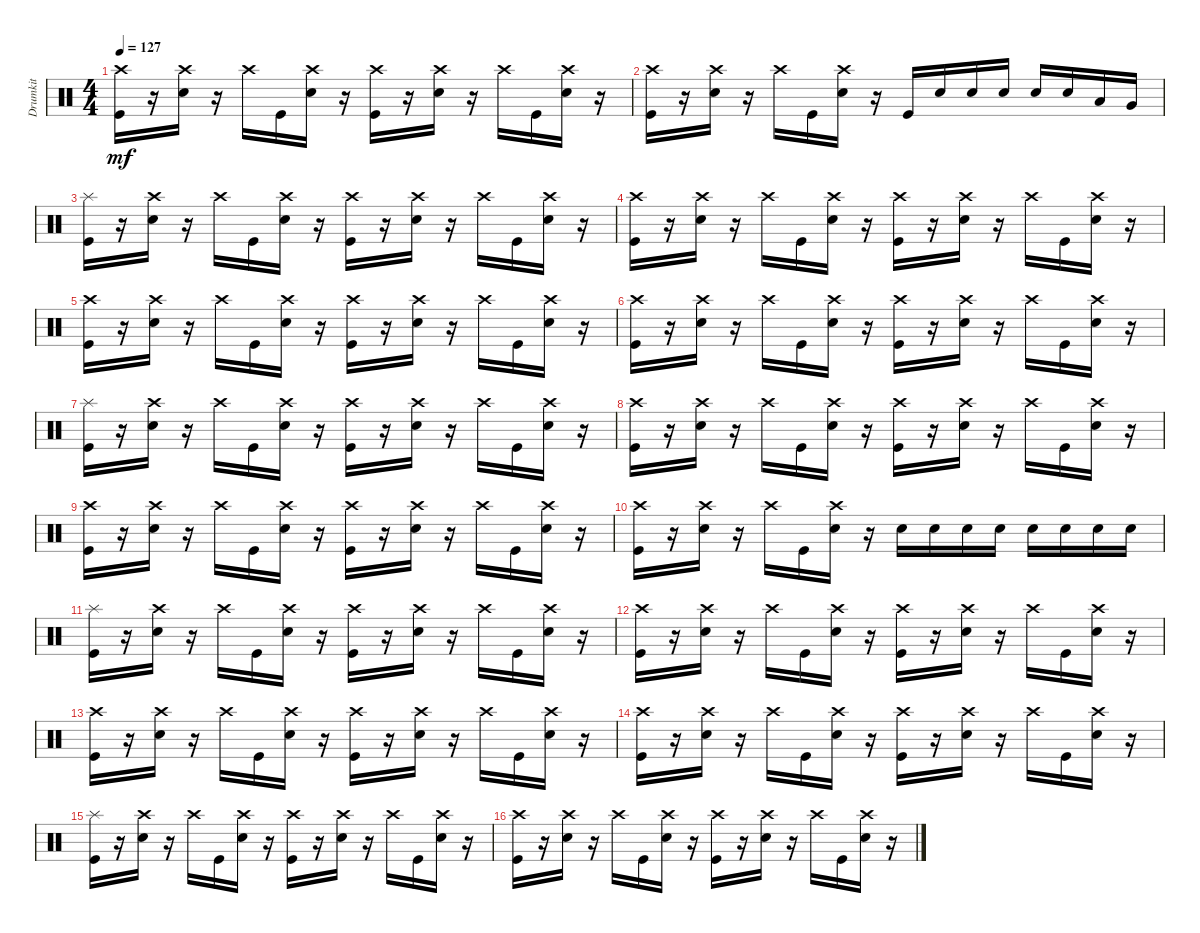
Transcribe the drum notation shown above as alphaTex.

\track ("Drumkit" "Drumkit") {instrument percussion}
\staff {score}
\articulation defaults
\ts (4 4)
\tempo 127
\clef neutral
\ks c
("Kick (hit)" "Crash high (hit)").16{dy mf} r.16 ("Snare (hit) 2" "Crash high (hit)").16 r.16 "Crash high (hit)".16 "Kick (hit)".16 ("Snare (hit) 2" "Crash high (hit)").16 r.16 ("Kick (hit)" "Crash high (hit)").16 r.16 ("Snare (hit) 2" "Crash high (hit)").16 r.16 "Crash high (hit)".16 "Kick (hit)".16 ("Snare (hit) 2" "Crash high (hit)").16 r.16 |
("Kick (hit)" "Crash high (hit)").16 r.16 ("Snare (hit) 2" "Crash high (hit)").16 r.16 "Crash high (hit)".16 "Kick (hit)".16 ("Snare (hit) 2" "Crash high (hit)").16 r.16 "Kick (hit)".16 "Snare (hit) 2".16 "Snare (hit) 2".16 "Snare (hit) 2".16 "Snare (hit) 2".16 "Snare (hit) 2".16 "Low Tom (hit)".16 "Very Low Tom (hit)".16 |
("Kick (hit)" "Splash (hit)").16 r.16 ("Snare (hit) 2" "Crash high (hit)").16 r.16 "Crash high (hit)".16 "Kick (hit)".16 ("Snare (hit) 2" "Crash high (hit)").16 r.16 ("Kick (hit)" "Crash high (hit)").16 r.16 ("Snare (hit) 2" "Crash high (hit)").16 r.16 "Crash high (hit)".16 "Kick (hit)".16 ("Snare (hit) 2" "Crash high (hit)").16 r.16 |
("Kick (hit)" "Crash high (hit)").16 r.16 ("Snare (hit) 2" "Crash high (hit)").16 r.16 "Crash high (hit)".16 "Kick (hit)".16 ("Snare (hit) 2" "Crash high (hit)").16 r.16 ("Kick (hit)" "Crash high (hit)").16 r.16 ("Snare (hit) 2" "Crash high (hit)").16 r.16 "Crash high (hit)".16 "Kick (hit)".16 ("Snare (hit) 2" "Crash high (hit)").16 r.16 |
("Kick (hit)" "Crash high (hit)").16 r.16 ("Snare (hit) 2" "Crash high (hit)").16 r.16 "Crash high (hit)".16 "Kick (hit)".16 ("Snare (hit) 2" "Crash high (hit)").16 r.16 ("Kick (hit)" "Crash high (hit)").16 r.16 ("Snare (hit) 2" "Crash high (hit)").16 r.16 "Crash high (hit)".16 "Kick (hit)".16 ("Snare (hit) 2" "Crash high (hit)").16 r.16 |
("Kick (hit)" "Crash high (hit)").16 r.16 ("Snare (hit) 2" "Crash high (hit)").16 r.16 "Crash high (hit)".16 "Kick (hit)".16 ("Snare (hit) 2" "Crash high (hit)").16 r.16 ("Kick (hit)" "Crash high (hit)").16 r.16 ("Snare (hit) 2" "Crash high (hit)").16 r.16 "Crash high (hit)".16 "Kick (hit)".16 ("Snare (hit) 2" "Crash high (hit)").16 r.16 |
("Kick (hit)" "Splash (hit)").16 r.16 ("Snare (hit) 2" "Crash high (hit)").16 r.16 "Crash high (hit)".16 "Kick (hit)".16 ("Snare (hit) 2" "Crash high (hit)").16 r.16 ("Kick (hit)" "Crash high (hit)").16 r.16 ("Snare (hit) 2" "Crash high (hit)").16 r.16 "Crash high (hit)".16 "Kick (hit)".16 ("Snare (hit) 2" "Crash high (hit)").16 r.16 |
("Kick (hit)" "Crash high (hit)").16 r.16 ("Snare (hit) 2" "Crash high (hit)").16 r.16 "Crash high (hit)".16 "Kick (hit)".16 ("Snare (hit) 2" "Crash high (hit)").16 r.16 ("Kick (hit)" "Crash high (hit)").16 r.16 ("Snare (hit) 2" "Crash high (hit)").16 r.16 "Crash high (hit)".16 "Kick (hit)".16 ("Snare (hit) 2" "Crash high (hit)").16 r.16 |
("Kick (hit)" "Crash high (hit)").16 r.16 ("Snare (hit) 2" "Crash high (hit)").16 r.16 "Crash high (hit)".16 "Kick (hit)".16 ("Snare (hit) 2" "Crash high (hit)").16 r.16 ("Kick (hit)" "Crash high (hit)").16 r.16 ("Snare (hit) 2" "Crash high (hit)").16 r.16 "Crash high (hit)".16 "Kick (hit)".16 ("Snare (hit) 2" "Crash high (hit)").16 r.16 |
("Kick (hit)" "Crash high (hit)").16 r.16 ("Snare (hit) 2" "Crash high (hit)").16 r.16 "Crash high (hit)".16 "Kick (hit)".16 ("Snare (hit) 2" "Crash high (hit)").16 r.16 "Snare (hit) 2".16 "Snare (hit) 2".16 "Snare (hit) 2".16 "Snare (hit) 2".16 "Snare (hit) 2".16 "Snare (hit) 2".16 "Snare (hit) 2".16 "Snare (hit) 2".16 |
("Kick (hit)" "Splash (hit)").16 r.16 ("Snare (hit) 2" "Crash high (hit)").16 r.16 "Crash high (hit)".16 "Kick (hit)".16 ("Snare (hit) 2" "Crash high (hit)").16 r.16 ("Kick (hit)" "Crash high (hit)").16 r.16 ("Snare (hit) 2" "Crash high (hit)").16 r.16 "Crash high (hit)".16 "Kick (hit)".16 ("Snare (hit) 2" "Crash high (hit)").16 r.16 |
("Kick (hit)" "Crash high (hit)").16 r.16 ("Snare (hit) 2" "Crash high (hit)").16 r.16 "Crash high (hit)".16 "Kick (hit)".16 ("Snare (hit) 2" "Crash high (hit)").16 r.16 ("Kick (hit)" "Crash high (hit)").16 r.16 ("Snare (hit) 2" "Crash high (hit)").16 r.16 "Crash high (hit)".16 "Kick (hit)".16 ("Snare (hit) 2" "Crash high (hit)").16 r.16 |
("Kick (hit)" "Crash high (hit)").16 r.16 ("Snare (hit) 2" "Crash high (hit)").16 r.16 "Crash high (hit)".16 "Kick (hit)".16 ("Snare (hit) 2" "Crash high (hit)").16 r.16 ("Kick (hit)" "Crash high (hit)").16 r.16 ("Snare (hit) 2" "Crash high (hit)").16 r.16 "Crash high (hit)".16 "Kick (hit)".16 ("Snare (hit) 2" "Crash high (hit)").16 r.16 |
("Kick (hit)" "Crash high (hit)").16 r.16 ("Snare (hit) 2" "Crash high (hit)").16 r.16 "Crash high (hit)".16 "Kick (hit)".16 ("Snare (hit) 2" "Crash high (hit)").16 r.16 ("Kick (hit)" "Crash high (hit)").16 r.16 ("Snare (hit) 2" "Crash high (hit)").16 r.16 "Crash high (hit)".16 "Kick (hit)".16 ("Snare (hit) 2" "Crash high (hit)").16 r.16 |
("Kick (hit)" "Splash (hit)").16 r.16 ("Snare (hit) 2" "Crash high (hit)").16 r.16 "Crash high (hit)".16 "Kick (hit)".16 ("Snare (hit) 2" "Crash high (hit)").16 r.16 ("Kick (hit)" "Crash high (hit)").16 r.16 ("Snare (hit) 2" "Crash high (hit)").16 r.16 "Crash high (hit)".16 "Kick (hit)".16 ("Snare (hit) 2" "Crash high (hit)").16 r.16 |
("Kick (hit)" "Crash high (hit)").16 r.16 ("Snare (hit) 2" "Crash high (hit)").16 r.16 "Crash high (hit)".16 "Kick (hit)".16 ("Snare (hit) 2" "Crash high (hit)").16 r.16 ("Kick (hit)" "Crash high (hit)").16 r.16 ("Snare (hit) 2" "Crash high (hit)").16 r.16 "Crash high (hit)".16 "Kick (hit)".16 ("Snare (hit) 2" "Crash high (hit)").16 r.16
